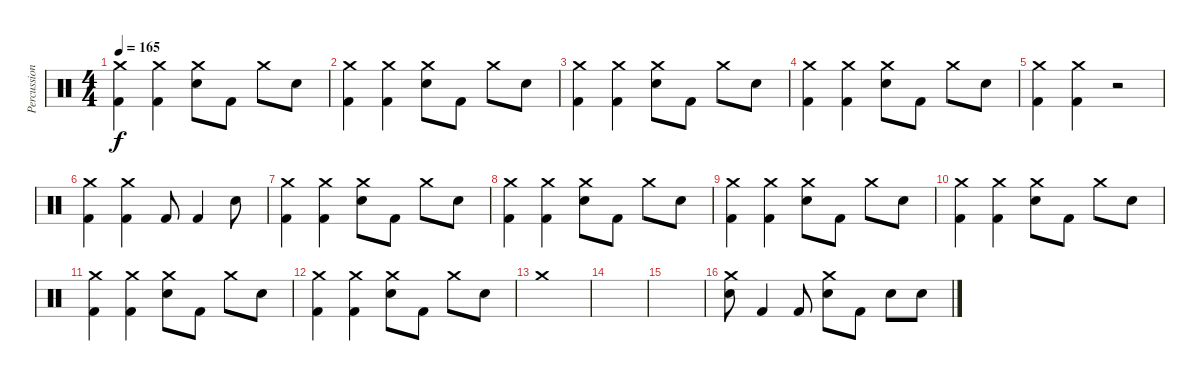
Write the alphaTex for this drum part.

\track ("Percussion" "Percussion") {instrument percussion}
\staff {score}
\articulation defaults
\ts (4 4)
\tempo 165
\clef neutral
\ks c
("Crash medium (hit)" "Kick (hit) 2").4{dy f} ("Crash medium (hit)" "Kick (hit) 2").4 ("Crash medium (hit)" "Snare (hit) 2").8 "Kick (hit) 2".8 "Crash medium (hit)".8 "Snare (hit) 2".8 |
("Crash medium (hit)" "Kick (hit) 2").4 ("Crash medium (hit)" "Kick (hit) 2").4 ("Crash medium (hit)" "Snare (hit) 2").8 "Kick (hit) 2".8 "Crash medium (hit)".8 "Snare (hit) 2".8 |
("Crash medium (hit)" "Kick (hit) 2").4 ("Crash medium (hit)" "Kick (hit) 2").4 ("Crash medium (hit)" "Snare (hit) 2").8 "Kick (hit) 2".8 "Crash medium (hit)".8 "Snare (hit) 2".8 |
("Crash medium (hit)" "Kick (hit) 2").4 ("Crash medium (hit)" "Kick (hit) 2").4 ("Crash medium (hit)" "Snare (hit) 2").8 "Kick (hit) 2".8 "Crash medium (hit)".8 "Snare (hit) 2".8 |
("Crash medium (hit)" "Kick (hit) 2").4 ("Crash medium (hit)" "Kick (hit) 2").4 r.2 |
("Crash medium (hit)" "Kick (hit) 2").4 ("Crash medium (hit)" "Kick (hit) 2").4 "Kick (hit) 2".8 "Kick (hit) 2".4 "Snare (hit) 2".8 |
("Crash medium (hit)" "Kick (hit) 2").4 ("Crash medium (hit)" "Kick (hit) 2").4 ("Crash medium (hit)" "Snare (hit) 2").8 "Kick (hit) 2".8 "Crash medium (hit)".8 "Snare (hit) 2".8 |
("Crash medium (hit)" "Kick (hit) 2").4 ("Crash medium (hit)" "Kick (hit) 2").4 ("Crash medium (hit)" "Snare (hit) 2").8 "Kick (hit) 2".8 "Crash medium (hit)".8 "Snare (hit) 2".8 |
("Crash medium (hit)" "Kick (hit) 2").4 ("Crash medium (hit)" "Kick (hit) 2").4 ("Crash medium (hit)" "Snare (hit) 2").8 "Kick (hit) 2".8 "Crash medium (hit)".8 "Snare (hit) 2".8 |
("Crash medium (hit)" "Kick (hit) 2").4 ("Crash medium (hit)" "Kick (hit) 2").4 ("Crash medium (hit)" "Snare (hit) 2").8 "Kick (hit) 2".8 "Crash medium (hit)".8 "Snare (hit) 2".8 |
("Crash medium (hit)" "Kick (hit) 2").4 ("Crash medium (hit)" "Kick (hit) 2").4 ("Crash medium (hit)" "Snare (hit) 2").8 "Kick (hit) 2".8 "Crash medium (hit)".8 "Snare (hit) 2".8 |
("Crash medium (hit)" "Kick (hit) 2").4 ("Crash medium (hit)" "Kick (hit) 2").4 ("Crash medium (hit)" "Snare (hit) 2").8 "Kick (hit) 2".8 "Crash medium (hit)".8 "Snare (hit) 2".8 |
"Crash medium (hit)".1 |
|
|
("Crash medium (hit)" "Snare (hit) 2").8 "Kick (hit) 2".4 "Kick (hit) 2".8 ("Crash medium (hit)" "Snare (hit) 2").8 "Kick (hit) 2".8 "Snare (hit) 2".8 "Snare (hit) 2".8
